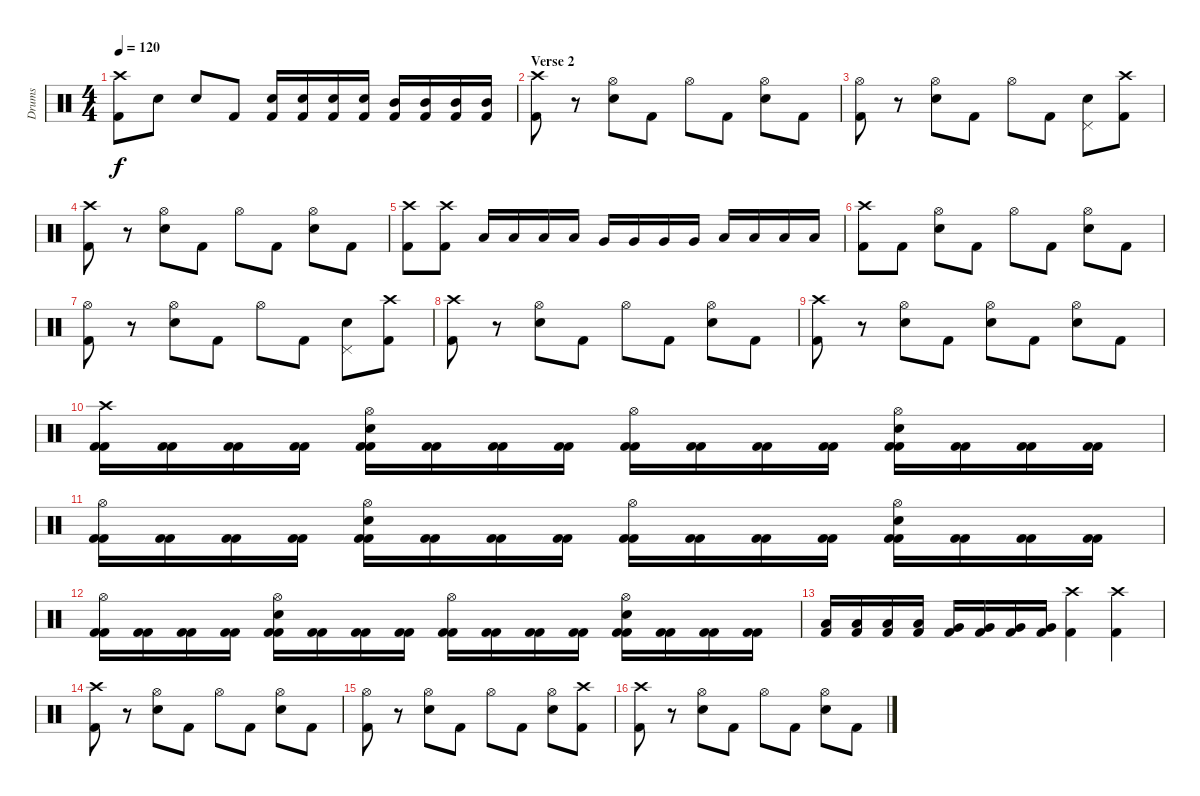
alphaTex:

\track ("Drums" "Drums") {instrument percussion}
\staff {score}
\articulation defaults
\ts (4 4)
\tempo 120
\clef neutral
\ks c
("Crash high (hit)" "Kick (hit) 2").8{dy f} "Electric Snare (hit)".8 "Electric Snare (hit)".8 "Kick (hit) 2".8 ("Electric Snare (hit)" "Kick (hit) 2").16 ("Electric Snare (hit)" "Kick (hit) 2").16 ("Electric Snare (hit)" "Kick (hit) 2").16 ("Electric Snare (hit)" "Kick (hit) 2").16 ("Mid Tom (hit)" "Kick (hit) 2").16 ("Mid Tom (hit)" "Kick (hit) 2").16 ("Mid Tom (hit)" "Kick (hit) 2").16 ("Mid Tom (hit)" "Kick (hit) 2").16 |
\section ("" "Verse 2")
("Crash high (hit)" "Kick (hit) 2").8 r.8 ("Hi-Hat (open)" "Electric Snare (hit)").8 "Kick (hit) 2".8 "Hi-Hat (open)".8 "Kick (hit) 2".8 ("Hi-Hat (open)" "Electric Snare (hit)").8 "Kick (hit) 2".8 |
("Hi-Hat (open)" "Kick (hit) 2").8 r.8 ("Hi-Hat (open)" "Electric Snare (hit)").8 "Kick (hit) 2".8 "Hi-Hat (open)".8 "Kick (hit) 2".8 ("Pedal Hi-Hat (hit)" "Electric Snare (hit)").8 ("Crash high (hit)" "Kick (hit) 2").8 |
("Crash high (hit)" "Kick (hit) 2").8 r.8 ("Hi-Hat (open)" "Electric Snare (hit)").8 "Kick (hit) 2".8 "Hi-Hat (open)".8 "Kick (hit) 2".8 ("Hi-Hat (open)" "Electric Snare (hit)").8 "Kick (hit) 2".8 |
("Crash high (hit)" "Kick (hit) 2").8 ("Crash high (hit)" "Kick (hit) 2").8 "Low Tom (hit)".16 "Low Tom (hit)".16 "Low Tom (hit)".16 "Low Tom (hit)".16 "Very Low Tom (hit)".16 "Very Low Tom (hit)".16 "Very Low Tom (hit)".16 "Very Low Tom (hit)".16 "Low Floor Tom (hit)".16 "Low Floor Tom (hit)".16 "Low Floor Tom (hit)".16 "Low Floor Tom (hit)".16 |
("Crash high (hit)" "Kick (hit) 2").8 "Kick (hit) 2".8 ("Hi-Hat (open)" "Electric Snare (hit)").8 "Kick (hit) 2".8 "Hi-Hat (open)".8 "Kick (hit) 2".8 ("Hi-Hat (open)" "Electric Snare (hit)").8 "Kick (hit) 2".8 |
("Hi-Hat (open)" "Kick (hit) 2").8 r.8 ("Hi-Hat (open)" "Electric Snare (hit)").8 "Kick (hit) 2".8 "Hi-Hat (open)".8 "Kick (hit) 2".8 ("Pedal Hi-Hat (hit)" "Electric Snare (hit)").8 ("Crash high (hit)" "Kick (hit) 2").8 |
("Crash high (hit)" "Kick (hit) 2").8 r.8 ("Hi-Hat (open)" "Electric Snare (hit)").8 "Kick (hit) 2".8 "Hi-Hat (open)".8 "Kick (hit) 2".8 ("Hi-Hat (open)" "Electric Snare (hit)").8 "Kick (hit) 2".8 |
("Crash high (hit)" "Kick (hit) 2").8 r.8 ("Hi-Hat (open)" "Electric Snare (hit)").8 "Kick (hit) 2".8 ("Hi-Hat (open)" "Electric Snare (hit)").8 "Kick (hit) 2".8 ("Hi-Hat (open)" "Electric Snare (hit)").8 "Kick (hit) 2".8 |
("Crash high (hit)" "Kick (hit) 2" "Kick (hit) 2").16 ("Kick (hit) 2" "Kick (hit) 2").16 ("Kick (hit) 2" "Kick (hit) 2").16 ("Kick (hit) 2" "Kick (hit) 2").16 ("Hi-Hat (open)" "Kick (hit) 2" "Electric Snare (hit)" "Kick (hit) 2").16 ("Kick (hit) 2" "Kick (hit) 2").16 ("Kick (hit) 2" "Kick (hit) 2").16 ("Kick (hit) 2" "Kick (hit) 2").16 ("Hi-Hat (open)" "Kick (hit) 2" "Kick (hit) 2").16 ("Kick (hit) 2" "Kick (hit) 2").16 ("Kick (hit) 2" "Kick (hit) 2").16 ("Kick (hit) 2" "Kick (hit) 2").16 ("Hi-Hat (open)" "Kick (hit) 2" "Electric Snare (hit)" "Kick (hit) 2").16 ("Kick (hit) 2" "Kick (hit) 2").16 ("Kick (hit) 2" "Kick (hit) 2").16 ("Kick (hit) 2" "Kick (hit) 2").16 |
("Hi-Hat (open)" "Kick (hit) 2" "Kick (hit) 2").16 ("Kick (hit) 2" "Kick (hit) 2").16 ("Kick (hit) 2" "Kick (hit) 2").16 ("Kick (hit) 2" "Kick (hit) 2").16 ("Hi-Hat (open)" "Kick (hit) 2" "Electric Snare (hit)" "Kick (hit) 2").16 ("Kick (hit) 2" "Kick (hit) 2").16 ("Kick (hit) 2" "Kick (hit) 2").16 ("Kick (hit) 2" "Kick (hit) 2").16 ("Hi-Hat (open)" "Kick (hit) 2" "Kick (hit) 2").16 ("Kick (hit) 2" "Kick (hit) 2").16 ("Kick (hit) 2" "Kick (hit) 2").16 ("Kick (hit) 2" "Kick (hit) 2").16 ("Hi-Hat (open)" "Kick (hit) 2" "Electric Snare (hit)" "Kick (hit) 2").16 ("Kick (hit) 2" "Kick (hit) 2").16 ("Kick (hit) 2" "Kick (hit) 2").16 ("Kick (hit) 2" "Kick (hit) 2").16 |
("Hi-Hat (open)" "Kick (hit) 2" "Kick (hit) 2").16 ("Kick (hit) 2" "Kick (hit) 2").16 ("Kick (hit) 2" "Kick (hit) 2").16 ("Kick (hit) 2" "Kick (hit) 2").16 ("Hi-Hat (open)" "Kick (hit) 2" "Electric Snare (hit)" "Kick (hit) 2").16 ("Kick (hit) 2" "Kick (hit) 2").16 ("Kick (hit) 2" "Kick (hit) 2").16 ("Kick (hit) 2" "Kick (hit) 2").16 ("Hi-Hat (open)" "Kick (hit) 2" "Kick (hit) 2").16 ("Kick (hit) 2" "Kick (hit) 2").16 ("Kick (hit) 2" "Kick (hit) 2").16 ("Kick (hit) 2" "Kick (hit) 2").16 ("Hi-Hat (open)" "Kick (hit) 2" "Electric Snare (hit)" "Kick (hit) 2").16 ("Kick (hit) 2" "Kick (hit) 2").16 ("Kick (hit) 2" "Kick (hit) 2").16 ("Kick (hit) 2" "Kick (hit) 2").16 |
("Low Tom (hit)" "Kick (hit) 2").16 ("Low Tom (hit)" "Kick (hit) 2").16 ("Low Tom (hit)" "Kick (hit) 2").16 ("Low Tom (hit)" "Kick (hit) 2").16 ("Very Low Tom (hit)" "Kick (hit) 2").16 ("Very Low Tom (hit)" "Kick (hit) 2").16 ("Very Low Tom (hit)" "Kick (hit) 2").16 ("Very Low Tom (hit)" "Kick (hit) 2").16 ("Crash high (hit)" "Kick (hit) 2").4 ("Crash high (hit)" "Kick (hit) 2").4 |
("Crash high (hit)" "Kick (hit) 2").8 r.8 ("Hi-Hat (open)" "Electric Snare (hit)").8 "Kick (hit) 2".8 "Hi-Hat (open)".8 "Kick (hit) 2".8 ("Hi-Hat (open)" "Electric Snare (hit)").8 "Kick (hit) 2".8 |
("Hi-Hat (open)" "Kick (hit) 2").8 r.8 ("Hi-Hat (open)" "Electric Snare (hit)").8 "Kick (hit) 2".8 "Hi-Hat (open)".8 "Kick (hit) 2".8 ("Hi-Hat (open)" "Electric Snare (hit)").8 ("Crash high (hit)" "Kick (hit) 2").8 |
("Crash high (hit)" "Kick (hit) 2").8 r.8 ("Hi-Hat (open)" "Electric Snare (hit)").8 "Kick (hit) 2".8 "Hi-Hat (open)".8 "Kick (hit) 2".8 ("Hi-Hat (open)" "Electric Snare (hit)").8 "Kick (hit) 2".8
